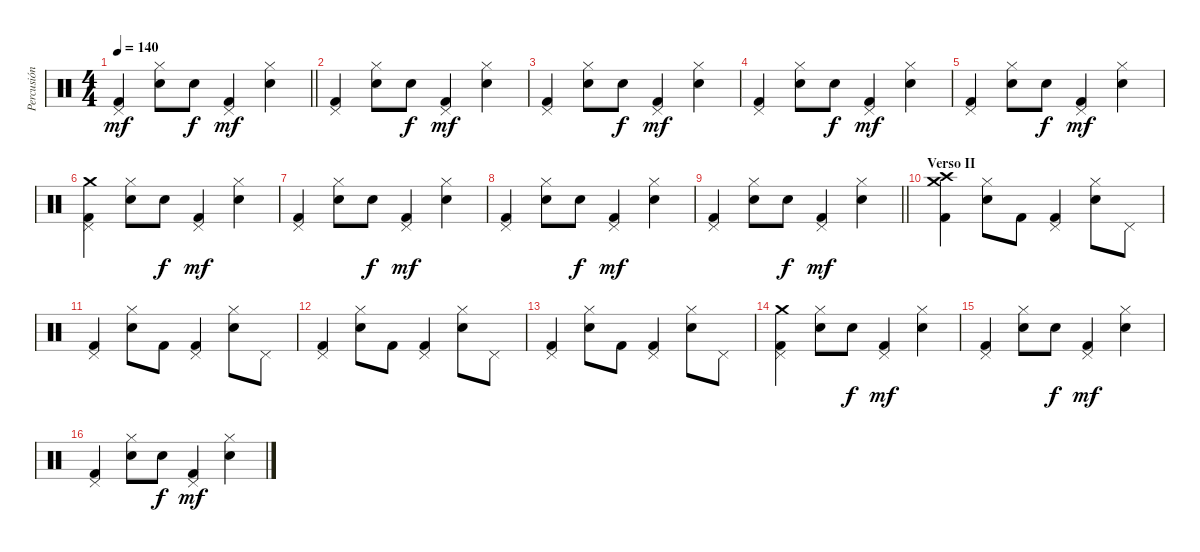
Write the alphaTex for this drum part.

\track ("Percusión" "Percusión") {instrument percussion}
\staff {score}
\articulation defaults
\ts (4 4)
\tempo 140
\clef neutral
\barLineRight lightlight
\ks c
("Pedal Hi-Hat (hit)" "Kick (hit) 2").4{dy mf} ("Hi-Hat (closed)" "Electric Snare (hit)").8 "Electric Snare (hit)".8{dy f} ("Pedal Hi-Hat (hit)" "Kick (hit) 2").4{dy mf} ("Hi-Hat (closed)" "Electric Snare (hit)").4 |
("Pedal Hi-Hat (hit)" "Kick (hit) 2").4 ("Hi-Hat (closed)" "Electric Snare (hit)").8 "Electric Snare (hit)".8{dy f} ("Pedal Hi-Hat (hit)" "Kick (hit) 2").4{dy mf} ("Hi-Hat (closed)" "Electric Snare (hit)").4 |
("Pedal Hi-Hat (hit)" "Kick (hit) 2").4 ("Hi-Hat (closed)" "Electric Snare (hit)").8 "Electric Snare (hit)".8{dy f} ("Pedal Hi-Hat (hit)" "Kick (hit) 2").4{dy mf} ("Hi-Hat (closed)" "Electric Snare (hit)").4 |
("Pedal Hi-Hat (hit)" "Kick (hit) 2").4 ("Hi-Hat (closed)" "Electric Snare (hit)").8 "Electric Snare (hit)".8{dy f} ("Pedal Hi-Hat (hit)" "Kick (hit) 2").4{dy mf} ("Hi-Hat (closed)" "Electric Snare (hit)").4 |
("Pedal Hi-Hat (hit)" "Kick (hit) 2").4 ("Hi-Hat (closed)" "Electric Snare (hit)").8 "Electric Snare (hit)".8{dy f} ("Pedal Hi-Hat (hit)" "Kick (hit) 2").4{dy mf} ("Hi-Hat (closed)" "Electric Snare (hit)").4 |
("Pedal Hi-Hat (hit)" "Crash medium (hit)" "Kick (hit) 2").4 ("Hi-Hat (closed)" "Electric Snare (hit)").8 "Electric Snare (hit)".8{dy f} ("Pedal Hi-Hat (hit)" "Kick (hit) 2").4{dy mf} ("Hi-Hat (closed)" "Electric Snare (hit)").4 |
("Pedal Hi-Hat (hit)" "Kick (hit) 2").4 ("Hi-Hat (closed)" "Electric Snare (hit)").8 "Electric Snare (hit)".8{dy f} ("Pedal Hi-Hat (hit)" "Kick (hit) 2").4{dy mf} ("Hi-Hat (closed)" "Electric Snare (hit)").4 |
("Pedal Hi-Hat (hit)" "Kick (hit) 2").4 ("Hi-Hat (closed)" "Electric Snare (hit)").8 "Electric Snare (hit)".8{dy f} ("Pedal Hi-Hat (hit)" "Kick (hit) 2").4{dy mf} ("Hi-Hat (closed)" "Electric Snare (hit)").4 |
\barLineRight lightlight
("Pedal Hi-Hat (hit)" "Kick (hit) 2").4 ("Hi-Hat (closed)" "Electric Snare (hit)").8 "Electric Snare (hit)".8{dy f} ("Pedal Hi-Hat (hit)" "Kick (hit) 2").4{dy mf} ("Hi-Hat (closed)" "Electric Snare (hit)").4 |
\section ("" "Verso II")
("Crash high (hit)" "Crash medium (hit)" "Kick (hit) 2").4 ("Hi-Hat (closed)" "Electric Snare (hit)").8 "Kick (hit) 2".8 ("Pedal Hi-Hat (hit)" "Kick (hit) 2").4 ("Hi-Hat (closed)" "Electric Snare (hit)").8 "Pedal Hi-Hat (hit)".8 |
("Pedal Hi-Hat (hit)" "Kick (hit) 2").4 ("Hi-Hat (closed)" "Electric Snare (hit)").8 "Kick (hit) 2".8 ("Pedal Hi-Hat (hit)" "Kick (hit) 2").4 ("Hi-Hat (closed)" "Electric Snare (hit)").8 "Pedal Hi-Hat (hit)".8 |
("Pedal Hi-Hat (hit)" "Kick (hit) 2").4 ("Hi-Hat (closed)" "Electric Snare (hit)").8 "Kick (hit) 2".8 ("Pedal Hi-Hat (hit)" "Kick (hit) 2").4 ("Hi-Hat (closed)" "Electric Snare (hit)").8 "Pedal Hi-Hat (hit)".8 |
("Pedal Hi-Hat (hit)" "Kick (hit) 2").4 ("Hi-Hat (closed)" "Electric Snare (hit)").8 "Kick (hit) 2".8 ("Pedal Hi-Hat (hit)" "Kick (hit) 2").4 ("Hi-Hat (closed)" "Electric Snare (hit)").8 "Pedal Hi-Hat (hit)".8 |
("Pedal Hi-Hat (hit)" "Crash medium (hit)" "Kick (hit) 2").4 ("Hi-Hat (closed)" "Electric Snare (hit)").8 "Electric Snare (hit)".8{dy f} ("Pedal Hi-Hat (hit)" "Kick (hit) 2").4{dy mf} ("Hi-Hat (closed)" "Electric Snare (hit)").4 |
("Pedal Hi-Hat (hit)" "Kick (hit) 2").4 ("Hi-Hat (closed)" "Electric Snare (hit)").8 "Electric Snare (hit)".8{dy f} ("Pedal Hi-Hat (hit)" "Kick (hit) 2").4{dy mf} ("Hi-Hat (closed)" "Electric Snare (hit)").4 |
("Pedal Hi-Hat (hit)" "Kick (hit) 2").4 ("Hi-Hat (closed)" "Electric Snare (hit)").8 "Electric Snare (hit)".8{dy f} ("Pedal Hi-Hat (hit)" "Kick (hit) 2").4{dy mf} ("Hi-Hat (closed)" "Electric Snare (hit)").4
